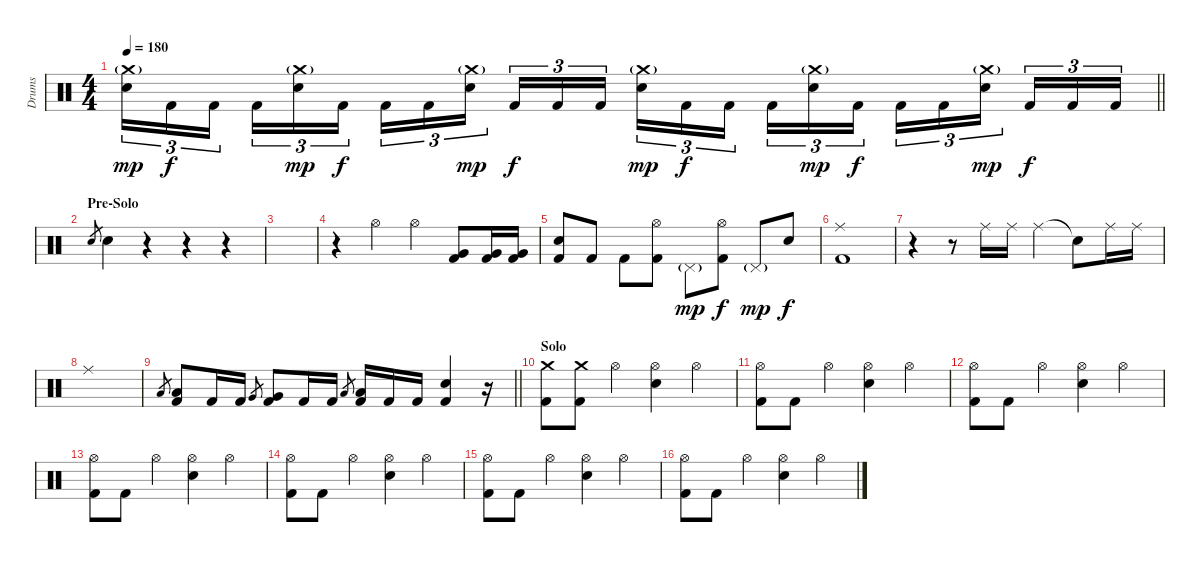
\track ("Drums" "Drums") {instrument percussion}
\staff {score}
\articulation defaults
\ts (4 4)
\tempo 180
\clef neutral
\barLineRight lightlight
\ks c
("Crash medium (hit)"{g} "Electric Snare (hit)").16{tu (3 2) dy mp} "Kick (hit) 2".16{tu (3 2) dy f} "Kick (hit) 2".16{tu (3 2) beam splitsecondary} "Kick (hit) 2".16{tu (3 2)} ("Crash medium (hit)"{g} "Electric Snare (hit)").16{tu (3 2) dy mp} "Kick (hit) 2".16{tu (3 2) dy f} "Kick (hit) 2".16{tu (3 2)} "Kick (hit) 2".16{tu (3 2)} ("Crash medium (hit)"{g} "Electric Snare (hit)").16{tu (3 2) dy mp beam splitsecondary} "Kick (hit) 2".16{tu (3 2) dy f} "Kick (hit) 2".16{tu (3 2)} "Kick (hit) 2".16{tu (3 2)} ("Crash medium (hit)"{g} "Electric Snare (hit)").16{tu (3 2) dy mp} "Kick (hit) 2".16{tu (3 2) dy f} "Kick (hit) 2".16{tu (3 2) beam splitsecondary} "Kick (hit) 2".16{tu (3 2)} ("Crash medium (hit)"{g} "Electric Snare (hit)").16{tu (3 2) dy mp} "Kick (hit) 2".16{tu (3 2) dy f} "Kick (hit) 2".16{tu (3 2)} "Kick (hit) 2".16{tu (3 2)} ("Crash medium (hit)"{g} "Electric Snare (hit)").16{tu (3 2) dy mp beam splitsecondary} "Kick (hit) 2".16{tu (3 2) dy f} "Kick (hit) 2".16{tu (3 2)} "Kick (hit) 2".16{tu (3 2)} |
\section ("" "Pre-Solo")
"Electric Snare (hit)".8{gr} "Electric Snare (hit)".4 r.4 r.4 r.4 |
|
r.4 "Hi-Hat (open)".4 "Hi-Hat (open)".4 ("Very Low Tom (hit)" "Kick (hit) 2").8 ("Very Low Tom (hit)" "Kick (hit) 2").16 ("Very Low Tom (hit)" "Kick (hit) 2").16 |
("Electric Snare (hit)" "Kick (hit) 2").8 "Kick (hit) 2".8 "Kick (hit) 2".8 ("Hi-Hat (open)" "Kick (hit) 2").8 "Pedal Hi-Hat (hit)"{g}.8{dy mp} ("Hi-Hat (open)" "Kick (hit) 2").8{dy f} "Pedal Hi-Hat (hit)"{g}.8{dy mp} "Electric Snare (hit)".8{dy f} |
("Ride (middle)" "Kick (hit) 2").1 |
r.4 r.8 "Ride (middle)".16 "Ride (middle)".16 "Ride (middle)".4 "Snare (hit)"{t}.8 "Ride (middle)".16 "Ride (middle)".16 |
"Ride (middle)".1 |
\barLineRight lightlight "Low Tom (hit)".8{gr}
("Low Tom (hit)" "Kick (hit) 2").8 "Kick (hit) 2".16 "Kick (hit) 2".16 "Very Low Tom (hit)".8{gr} ("Very Low Tom (hit)" "Kick (hit) 2").8 "Kick (hit) 2".16 "Kick (hit) 2".16 "Low Tom (hit)".8{gr} ("Low Tom (hit)" "Kick (hit) 2").16 "Kick (hit) 2".16 "Kick (hit) 2".16 ("Electric Snare (hit)" "Kick (hit) 2").4 r.16 |
\section ("" "Solo")
("Crash medium (hit)" "Kick (hit) 2").8 ("Crash medium (hit)" "Kick (hit) 2").8 "Hi-Hat (open)".4 ("Hi-Hat (open)" "Electric Snare (hit)").4 "Hi-Hat (open)".4 |
("Hi-Hat (open)" "Kick (hit) 2").8 "Kick (hit) 2".8 "Hi-Hat (open)".4 ("Hi-Hat (open)" "Electric Snare (hit)").4 "Hi-Hat (open)".4 |
("Hi-Hat (open)" "Kick (hit) 2").8 "Kick (hit) 2".8 "Hi-Hat (open)".4 ("Hi-Hat (open)" "Electric Snare (hit)").4 "Hi-Hat (open)".4 |
("Hi-Hat (open)" "Kick (hit) 2").8 "Kick (hit) 2".8 "Hi-Hat (open)".4 ("Hi-Hat (open)" "Electric Snare (hit)").4 "Hi-Hat (open)".4 |
("Hi-Hat (open)" "Kick (hit) 2").8 "Kick (hit) 2".8 "Hi-Hat (open)".4 ("Hi-Hat (open)" "Electric Snare (hit)").4 "Hi-Hat (open)".4 |
("Hi-Hat (open)" "Kick (hit) 2").8 "Kick (hit) 2".8 "Hi-Hat (open)".4 ("Hi-Hat (open)" "Electric Snare (hit)").4 "Hi-Hat (open)".4 |
("Hi-Hat (open)" "Kick (hit) 2").8 "Kick (hit) 2".8 "Hi-Hat (open)".4 ("Hi-Hat (open)" "Electric Snare (hit)").4 "Hi-Hat (open)".4
